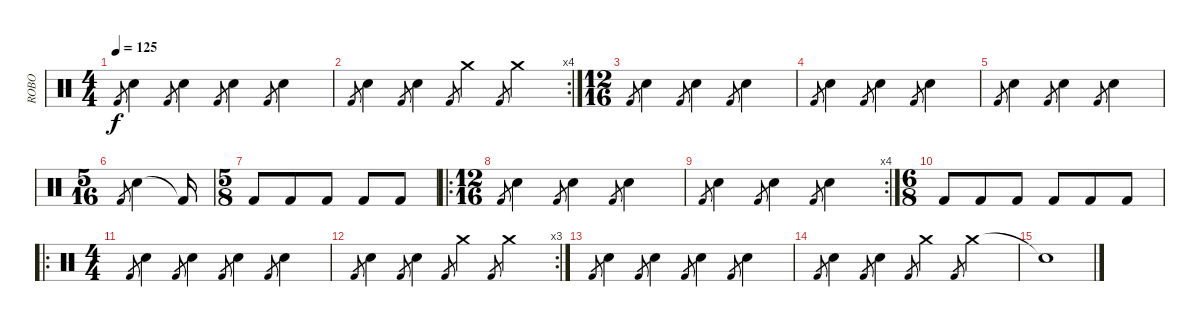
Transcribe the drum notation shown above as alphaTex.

\track ("ROBO" "ROBO") {instrument percussion}
\staff {score}
\articulation defaults
\ts (4 4)
\tempo 125
\clef neutral
\ks c "Kick (hit) 2".8{gr dy f} "Snare (hit) 2".4 "Kick (hit) 2".8{gr} "Snare (hit) 2".4 "Kick (hit) 2".8{gr} "Snare (hit) 2".4 "Kick (hit) 2".8{gr} "Snare (hit) 2".4
|
\rc 4 "Kick (hit) 2".8{gr} "Snare (hit) 2".4 "Kick (hit) 2".8{gr} "Snare (hit) 2".4 "Kick (hit) 2".8{gr} "Crash medium (hit)".4 "Kick (hit) 2".8{gr} "Crash medium (hit)".4
|
\ts (12 16)
"Kick (hit) 2".8{gr} "Snare (hit) 2".4 "Kick (hit) 2".8{gr} "Snare (hit) 2".4 "Kick (hit) 2".8{gr} "Snare (hit) 2".4 |
"Kick (hit) 2".8{gr} "Snare (hit) 2".4 "Kick (hit) 2".8{gr} "Snare (hit) 2".4 "Kick (hit) 2".8{gr} "Snare (hit) 2".4 |
"Kick (hit) 2".8{gr} "Snare (hit) 2".4 "Kick (hit) 2".8{gr} "Snare (hit) 2".4 "Kick (hit) 2".8{gr} "Snare (hit) 2".4 |
\ts (5 16)
"Kick (hit) 2".8{gr} "Snare (hit) 2".4 "Kick (hit) 2"{t}.16 |
\ts (5 8)
"Kick (hit) 2".8 "Kick (hit) 2".8 "Kick (hit) 2".8 "Kick (hit) 2".8 "Kick (hit) 2".8 |
\ro
\ts (12 16)
"Kick (hit) 2".8{gr} "Snare (hit) 2".4 "Kick (hit) 2".8{gr} "Snare (hit) 2".4 "Kick (hit) 2".8{gr} "Snare (hit) 2".4 |
\rc 4 "Kick (hit) 2".8{gr} "Snare (hit) 2".4 "Kick (hit) 2".8{gr} "Snare (hit) 2".4 "Kick (hit) 2".8{gr} "Snare (hit) 2".4
|
\ts (6 8)
"Kick (hit) 2".8 "Kick (hit) 2".8 "Kick (hit) 2".8 "Kick (hit) 2".8 "Kick (hit) 2".8 "Kick (hit) 2".8 |
\ro
\ts (4 4)
"Kick (hit) 2".8{gr} "Snare (hit) 2".4 "Kick (hit) 2".8{gr} "Snare (hit) 2".4 "Kick (hit) 2".8{gr} "Snare (hit) 2".4 "Kick (hit) 2".8{gr} "Snare (hit) 2".4 |
\rc 3 "Kick (hit) 2".8{gr} "Snare (hit) 2".4 "Kick (hit) 2".8{gr} "Snare (hit) 2".4 "Kick (hit) 2".8{gr} "Crash medium (hit)".4 "Kick (hit) 2".8{gr} "Crash medium (hit)".4
|
"Kick (hit) 2".8{gr} "Snare (hit) 2".4 "Kick (hit) 2".8{gr} "Snare (hit) 2".4 "Kick (hit) 2".8{gr} "Snare (hit) 2".4 "Kick (hit) 2".8{gr} "Snare (hit) 2".4 |
"Kick (hit) 2".8{gr} "Snare (hit) 2".4 "Kick (hit) 2".8{gr} "Snare (hit) 2".4 "Kick (hit) 2".8{gr} "Crash medium (hit)".4 "Kick (hit) 2".8{gr} "Crash medium (hit)".4 |
"Snare (hit)"{t}.1
